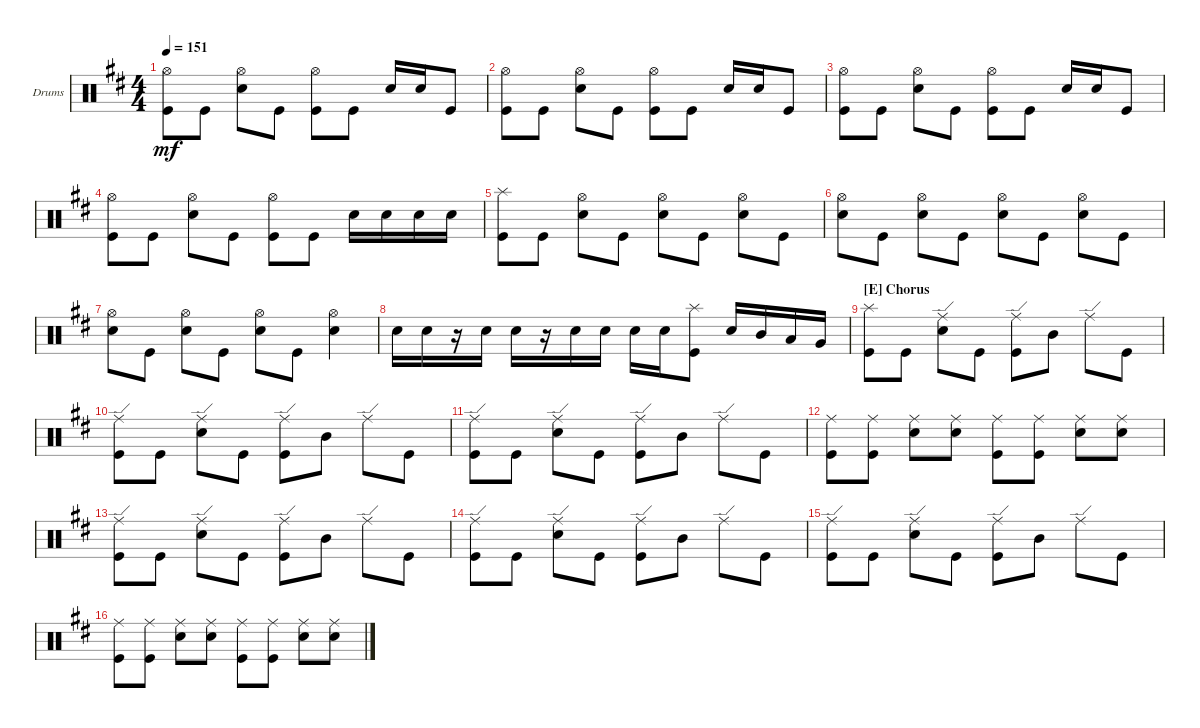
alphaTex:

\defaultSystemsLayout 4
\bracketExtendMode groupsimilarinstruments
\firstSystemTrackNameOrientation horizontal
\otherSystemsTrackNameOrientation horizontal
\track ("Drumkit" "Drums") {instrument percussion}
\staff {score}
\articulation defaults
\ts (4 4)
\tempo 151
\clef neutral
\ks bminor
("Kick (hit)" "Hi-Hat (open)").8{dy mf} "Kick (hit)".8 ("Hi-Hat (open)" "Snare (hit) 2").8 "Kick (hit)".8 ("Kick (hit)" "Hi-Hat (open)").8 "Kick (hit)".8 "Snare (hit) 2".16 "Snare (hit) 2".16 "Kick (hit)".8 |
("Kick (hit)" "Hi-Hat (open)").8 "Kick (hit)".8 ("Hi-Hat (open)" "Snare (hit) 2").8 "Kick (hit)".8 ("Kick (hit)" "Hi-Hat (open)").8 "Kick (hit)".8 "Snare (hit) 2".16 "Snare (hit) 2".16 "Kick (hit)".8 |
("Kick (hit)" "Hi-Hat (open)").8 "Kick (hit)".8 ("Hi-Hat (open)" "Snare (hit) 2").8 "Kick (hit)".8 ("Kick (hit)" "Hi-Hat (open)").8 "Kick (hit)".8 "Snare (hit) 2".16 "Snare (hit) 2".16 "Kick (hit)".8 |
("Kick (hit)" "Hi-Hat (open)").8 "Kick (hit)".8 ("Hi-Hat (open)" "Snare (hit) 2").8 "Kick (hit)".8 ("Kick (hit)" "Hi-Hat (open)").8 "Kick (hit)".8 "Snare (hit) 2".16 "Snare (hit) 2".16 "Snare (hit) 2".16 "Snare (hit) 2".16 |
("Kick (hit)" "Splash (hit)").8 "Kick (hit)".8 ("Snare (hit) 2" "Hi-Hat (open)").8 "Kick (hit)".8 ("Snare (hit) 2" "Hi-Hat (open)").8 "Kick (hit)".8 ("Snare (hit) 2" "Hi-Hat (open)").8 "Kick (hit)".8 |
("Snare (hit) 2" "Hi-Hat (open)").8 "Kick (hit)".8 ("Snare (hit) 2" "Hi-Hat (open)").8 "Kick (hit)".8 ("Snare (hit) 2" "Hi-Hat (open)").8 "Kick (hit)".8 ("Snare (hit) 2" "Hi-Hat (open)").8 "Kick (hit)".8 |
("Snare (hit) 2" "Hi-Hat (open)").8 "Kick (hit)".8 ("Snare (hit) 2" "Hi-Hat (open)").8 "Kick (hit)".8 ("Snare (hit) 2" "Hi-Hat (open)").8 "Kick (hit)".8 ("Snare (hit) 2" "Hi-Hat (open)").4 |
"Snare (hit) 2".16 "Snare (hit) 2".16 r.16 "Snare (hit) 2".16 "Snare (hit) 2".16 r.16 "Snare (hit) 2".16 "Snare (hit) 2".16 "Snare (hit) 2".16 "Snare (hit) 2".16 ("Splash (hit)" "Kick (hit)").8 "Snare (hit) 2".16 "Mid Tom (hit)".16 "Low Tom (hit)".16 "Very Low Tom (hit)".16 |
\section ("E" "Chorus")
("Kick (hit)" "Splash (hit)").8 "Kick (hit)".8 ("Snare (hit) 2" "Ride (edge)").8 "Kick (hit)".8 ("Kick (hit)" "Ride (edge)").8 "Mid Tom (hit)".8 "Ride (edge)".8 "Kick (hit)".8 |
("Kick (hit)" "Ride (edge)").8 "Kick (hit)".8 ("Snare (hit) 2" "Ride (edge)").8 "Kick (hit)".8 ("Kick (hit)" "Ride (edge)").8 "Mid Tom (hit)".8 "Ride (edge)".8 "Kick (hit)".8 |
("Kick (hit)" "Ride (edge)").8 "Kick (hit)".8 ("Snare (hit) 2" "Ride (edge)").8 "Kick (hit)".8 ("Kick (hit)" "Ride (edge)").8 "Mid Tom (hit)".8 "Ride (edge)".8 "Kick (hit)".8 |
("Ride (middle)" "Kick (hit)").8 ("Ride (middle)" "Kick (hit)").8 ("Ride (middle)" "Snare (hit) 2").8 ("Ride (middle)" "Snare (hit) 2").8 ("Ride (middle)" "Kick (hit)").8 ("Ride (middle)" "Kick (hit)").8 ("Ride (middle)" "Snare (hit) 2").8 ("Ride (middle)" "Snare (hit) 2").8 |
("Kick (hit)" "Ride (edge)").8 "Kick (hit)".8 ("Snare (hit) 2" "Ride (edge)").8 "Kick (hit)".8 ("Kick (hit)" "Ride (edge)").8 "Mid Tom (hit)".8 "Ride (edge)".8 "Kick (hit)".8 |
("Kick (hit)" "Ride (edge)").8 "Kick (hit)".8 ("Snare (hit) 2" "Ride (edge)").8 "Kick (hit)".8 ("Kick (hit)" "Ride (edge)").8 "Mid Tom (hit)".8 "Ride (edge)".8 "Kick (hit)".8 |
("Kick (hit)" "Ride (edge)").8 "Kick (hit)".8 ("Snare (hit) 2" "Ride (edge)").8 "Kick (hit)".8 ("Kick (hit)" "Ride (edge)").8 "Mid Tom (hit)".8 "Ride (edge)".8 "Kick (hit)".8 |
("Ride (middle)" "Kick (hit)").8 ("Ride (middle)" "Kick (hit)").8 ("Ride (middle)" "Snare (hit) 2").8 ("Ride (middle)" "Snare (hit) 2").8 ("Ride (middle)" "Kick (hit)").8 ("Ride (middle)" "Kick (hit)").8 ("Ride (middle)" "Snare (hit) 2").8 ("Ride (middle)" "Snare (hit) 2").8
